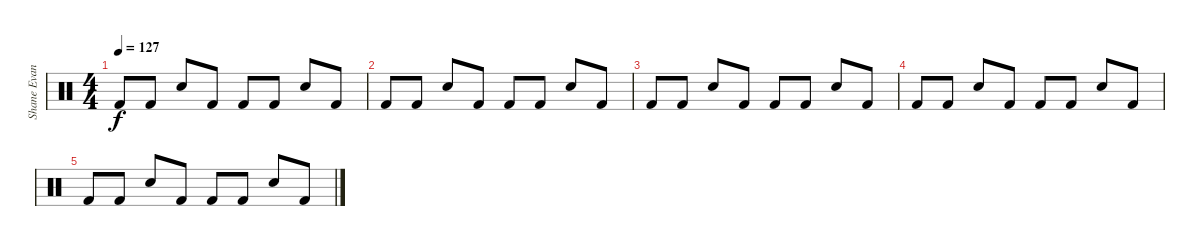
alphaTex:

\track ("Shane Evans" "Shane Evan") {instrument percussion}
\staff {score}
\articulation defaults
\ts (4 4)
\tempo 127
\clef neutral
\ks c "Kick (hit) 2".8{dy f} "Kick (hit) 2".8 "Snare (hit) 2".8 "Kick (hit) 2".8 "Kick (hit) 2".8 "Kick (hit) 2".8 "Snare (hit) 2".8 "Kick (hit) 2".8
|
"Kick (hit) 2".8 "Kick (hit) 2".8 "Snare (hit) 2".8 "Kick (hit) 2".8 "Kick (hit) 2".8 "Kick (hit) 2".8 "Snare (hit) 2".8 "Kick (hit) 2".8 |
"Kick (hit) 2".8 "Kick (hit) 2".8 "Snare (hit) 2".8 "Kick (hit) 2".8 "Kick (hit) 2".8 "Kick (hit) 2".8 "Snare (hit) 2".8 "Kick (hit) 2".8 |
"Kick (hit) 2".8 "Kick (hit) 2".8 "Snare (hit) 2".8 "Kick (hit) 2".8 "Kick (hit) 2".8 "Kick (hit) 2".8 "Snare (hit) 2".8 "Kick (hit) 2".8 |
"Kick (hit) 2".8 "Kick (hit) 2".8 "Snare (hit) 2".8 "Kick (hit) 2".8 "Kick (hit) 2".8 "Kick (hit) 2".8 "Snare (hit) 2".8 "Kick (hit) 2".8
